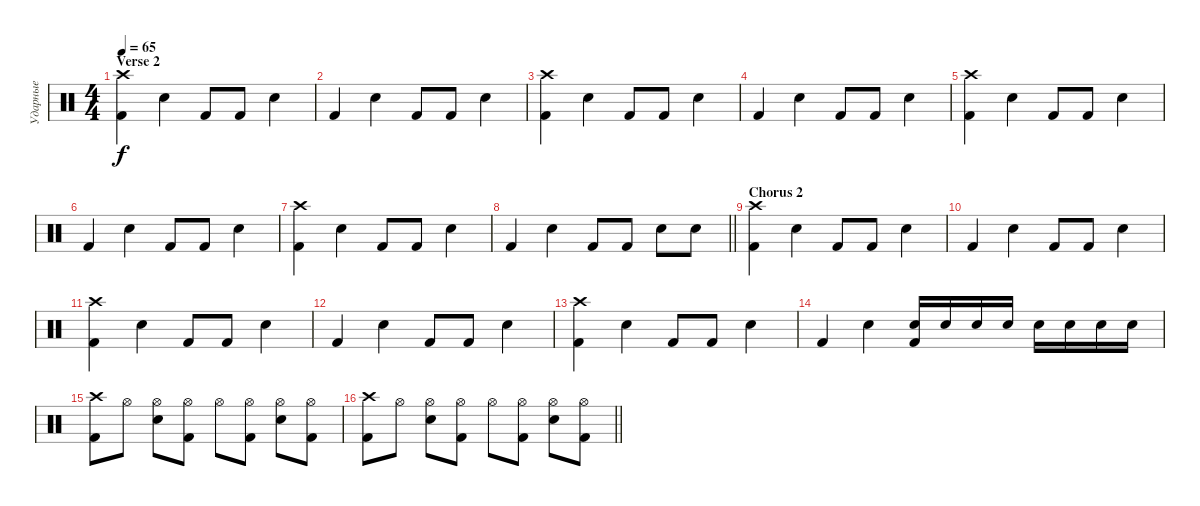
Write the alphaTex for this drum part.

\track ("Ударные" "Ударные") {instrument percussion}
\staff {score}
\articulation defaults
\ts (4 4)
\section ("" "Verse 2")
\tempo 65
\clef neutral
\ks c
("Kick (hit) 2" "Crash high (hit)").4{dy f} "Electric Snare (hit)".4 "Kick (hit) 2".8 "Kick (hit) 2".8 "Electric Snare (hit)".4 |
"Kick (hit) 2".4 "Electric Snare (hit)".4 "Kick (hit) 2".8 "Kick (hit) 2".8 "Electric Snare (hit)".4 |
("Kick (hit) 2" "Crash high (hit)").4 "Electric Snare (hit)".4 "Kick (hit) 2".8 "Kick (hit) 2".8 "Electric Snare (hit)".4 |
"Kick (hit) 2".4 "Electric Snare (hit)".4 "Kick (hit) 2".8 "Kick (hit) 2".8 "Electric Snare (hit)".4 |
("Kick (hit) 2" "Crash high (hit)").4 "Electric Snare (hit)".4 "Kick (hit) 2".8 "Kick (hit) 2".8 "Electric Snare (hit)".4 |
"Kick (hit) 2".4 "Electric Snare (hit)".4 "Kick (hit) 2".8 "Kick (hit) 2".8 "Electric Snare (hit)".4 |
("Kick (hit) 2" "Crash high (hit)").4 "Electric Snare (hit)".4 "Kick (hit) 2".8 "Kick (hit) 2".8 "Electric Snare (hit)".4 |
\barLineRight lightlight "Kick (hit) 2".4 "Electric Snare (hit)".4 "Kick (hit) 2".8 "Kick (hit) 2".8 "Electric Snare (hit)".8 "Electric Snare (hit)".8
|
\section ("" "Chorus 2")
("Kick (hit) 2" "Crash high (hit)").4 "Electric Snare (hit)".4 "Kick (hit) 2".8 "Kick (hit) 2".8 "Electric Snare (hit)".4 |
"Kick (hit) 2".4 "Electric Snare (hit)".4 "Kick (hit) 2".8 "Kick (hit) 2".8 "Electric Snare (hit)".4 |
("Kick (hit) 2" "Crash high (hit)").4 "Electric Snare (hit)".4 "Kick (hit) 2".8 "Kick (hit) 2".8 "Electric Snare (hit)".4 |
"Kick (hit) 2".4 "Electric Snare (hit)".4 "Kick (hit) 2".8 "Kick (hit) 2".8 "Electric Snare (hit)".4 |
("Kick (hit) 2" "Crash high (hit)").4 "Electric Snare (hit)".4 "Kick (hit) 2".8 "Kick (hit) 2".8 "Electric Snare (hit)".4 |
"Kick (hit) 2".4 "Electric Snare (hit)".4 ("Electric Snare (hit)" "Kick (hit) 2").16 "Electric Snare (hit)".16 "Electric Snare (hit)".16 "Electric Snare (hit)".16 "Electric Snare (hit)".16 "Electric Snare (hit)".16 "Electric Snare (hit)".16 "Electric Snare (hit)".16 |
("Kick (hit) 2" "Crash high (hit)").8 "Hi-Hat (open)".8 ("Hi-Hat (open)" "Electric Snare (hit)").8 ("Hi-Hat (open)" "Kick (hit) 2").8 "Hi-Hat (open)".8 ("Kick (hit) 2" "Hi-Hat (open)").8 ("Hi-Hat (open)" "Electric Snare (hit)").8 ("Kick (hit) 2" "Hi-Hat (open)").8 |
\barLineRight lightlight
("Kick (hit) 2" "Crash high (hit)").8 "Hi-Hat (open)".8 ("Hi-Hat (open)" "Electric Snare (hit)").8 ("Hi-Hat (open)" "Kick (hit) 2").8 "Hi-Hat (open)".8 ("Kick (hit) 2" "Hi-Hat (open)").8 ("Hi-Hat (open)" "Electric Snare (hit)").8 ("Kick (hit) 2" "Hi-Hat (open)").8
